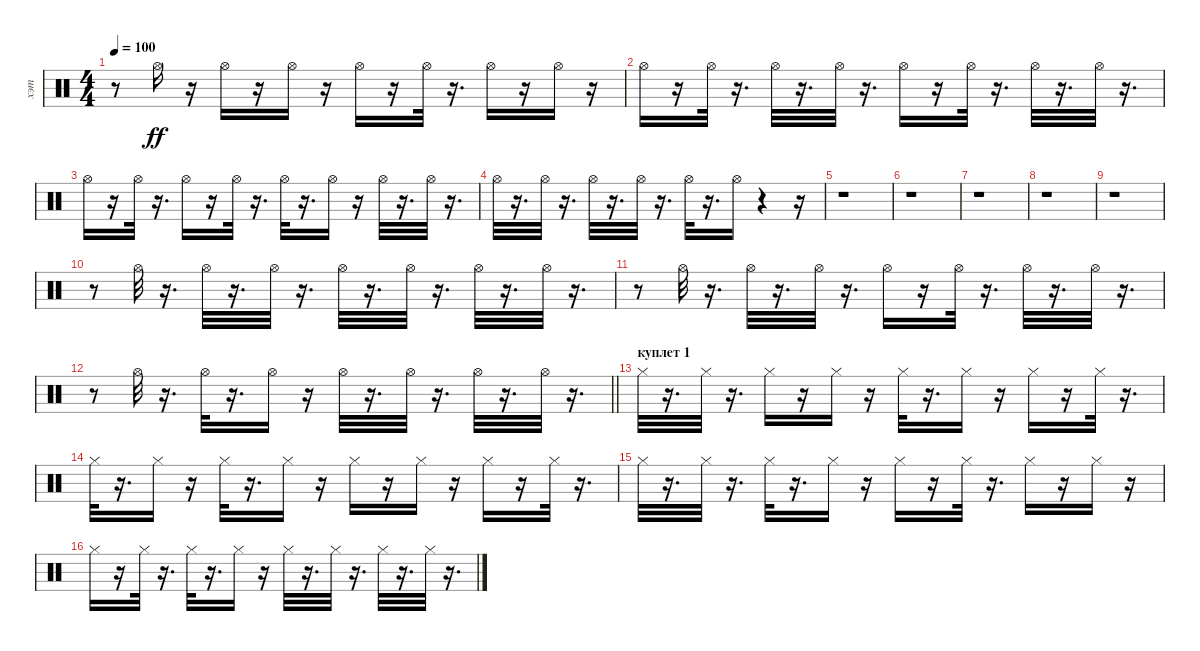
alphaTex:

\track ("хэт" "хэт") {instrument percussion}
\staff {score}
\articulation defaults
\ts (4 4)
\tempo 100
\clef neutral
\ks c
r.8{dy ff} "Hi-Hat (open)".16 r.16 "Hi-Hat (open)".16 r.16 "Hi-Hat (open)".16 r.16 "Hi-Hat (open)".16 r.16 "Hi-Hat (open)".32 r.16{d} "Hi-Hat (open)".16 r.16 "Hi-Hat (open)".16 r.16 |
"Hi-Hat (open)".16 r.16 "Hi-Hat (open)".32 r.16{d} "Hi-Hat (open)".32 r.16{d} "Hi-Hat (open)".32 r.16{d} "Hi-Hat (open)".16 r.16 "Hi-Hat (open)".32 r.16{d} "Hi-Hat (open)".32 r.16{d} "Hi-Hat (open)".32 r.16{d} |
"Hi-Hat (open)".16 r.16 "Hi-Hat (open)".32 r.16{d} "Hi-Hat (open)".16 r.16 "Hi-Hat (open)".32 r.16{d} "Hi-Hat (open)".32 r.16{d} "Hi-Hat (open)".16 r.16 "Hi-Hat (open)".32 r.16{d} "Hi-Hat (open)".32 r.16{d} |
"Hi-Hat (open)".32 r.16{d} "Hi-Hat (open)".32 r.16{d} "Hi-Hat (open)".32 r.16{d} "Hi-Hat (open)".32 r.16{d} "Hi-Hat (open)".32 r.16{d} "Hi-Hat (open)".16 r.4 r.16 |
r.1 |
r.1 |
r.1 |
r.1 |
r.1 |
r.8 "Hi-Hat (open)".32 r.16{d} "Hi-Hat (open)".32 r.16{d} "Hi-Hat (open)".32 r.16{d} "Hi-Hat (open)".32 r.16{d} "Hi-Hat (open)".32 r.16{d} "Hi-Hat (open)".32 r.16{d} "Hi-Hat (open)".32 r.16{d} |
r.8 "Hi-Hat (open)".32 r.16{d} "Hi-Hat (open)".32 r.16{d} "Hi-Hat (open)".32 r.16{d} "Hi-Hat (open)".16 r.16 "Hi-Hat (open)".32 r.16{d} "Hi-Hat (open)".32 r.16{d} "Hi-Hat (open)".32 r.16{d} |
\barLineRight lightlight
r.8 "Hi-Hat (open)".32 r.16{d} "Hi-Hat (open)".32 r.16{d} "Hi-Hat (open)".16 r.16 "Hi-Hat (open)".32 r.16{d} "Hi-Hat (open)".32 r.16{d} "Hi-Hat (open)".32 r.16{d} "Hi-Hat (open)".32 r.16{d} |
\section ("" "куплет 1")
"Hi-Hat (closed)".32 r.16{d} "Hi-Hat (closed)".32 r.16{d} "Hi-Hat (closed)".16 r.16 "Hi-Hat (closed)".16 r.16 "Hi-Hat (closed)".32 r.16{d} "Hi-Hat (closed)".16 r.16 "Hi-Hat (closed)".16 r.16 "Hi-Hat (closed)".32 r.16{d} |
"Hi-Hat (closed)".32 r.16{d} "Hi-Hat (closed)".16 r.16 "Hi-Hat (closed)".32 r.16{d} "Hi-Hat (closed)".16 r.16 "Hi-Hat (closed)".16 r.16 "Hi-Hat (closed)".16 r.16 "Hi-Hat (closed)".16 r.16 "Hi-Hat (closed)".32 r.16{d} |
"Hi-Hat (closed)".32 r.16{d} "Hi-Hat (closed)".32 r.16{d} "Hi-Hat (closed)".32 r.16{d} "Hi-Hat (closed)".16 r.16 "Hi-Hat (closed)".16 r.16 "Hi-Hat (closed)".32 r.16{d} "Hi-Hat (closed)".16 r.16 "Hi-Hat (closed)".16 r.16 |
"Hi-Hat (closed)".16 r.16 "Hi-Hat (closed)".32 r.16{d} "Hi-Hat (closed)".32 r.16{d} "Hi-Hat (closed)".16 r.16 "Hi-Hat (closed)".32 r.16{d} "Hi-Hat (closed)".32 r.16{d} "Hi-Hat (closed)".32 r.16{d} "Hi-Hat (closed)".32 r.16{d}
